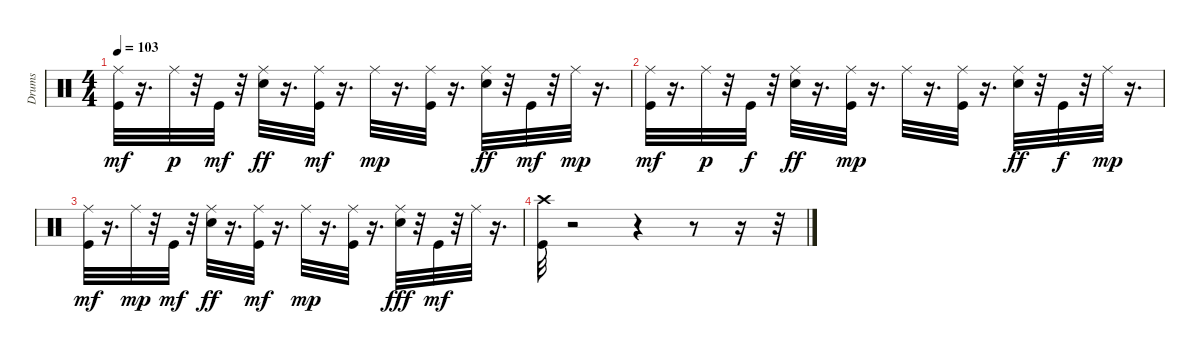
\track ("Drums" "Drums") {instrument percussion}
\staff {score}
\articulation defaults
\ts (4 4)
\tempo 103
\clef neutral
\ks c
("Kick (hit)" "Ride (middle)").32{dy mf} r.16{d} "Ride (middle)".32{dy p} r.32 "Kick (hit)".32{dy mf} r.32 ("Ride (middle)" "Snare (hit) 2").32{dy ff} r.16{d} ("Ride (middle)" "Kick (hit)").32{dy mf} r.16{d} "Ride (middle)".32{dy mp} r.16{d} ("Kick (hit)" "Ride (middle)").32 r.16{d} ("Ride (middle)" "Snare (hit) 2").32{dy ff} r.32 "Kick (hit)".32{dy mf} r.32 "Ride (middle)".32{dy mp} r.16{d} |
("Kick (hit)" "Ride (middle)").32{dy mf} r.16{d} "Ride (middle)".32{dy p} r.32 "Kick (hit)".32{dy f} r.32 ("Ride (middle)" "Snare (hit) 2").32{dy ff} r.16{d} ("Ride (middle)" "Kick (hit)").32{dy mp} r.16{d} "Ride (middle)".32 r.16{d} ("Ride (middle)" "Kick (hit)").32 r.16{d} ("Ride (middle)" "Snare (hit) 2").32{dy ff} r.32 "Kick (hit)".32{dy f} r.32 "Ride (middle)".32{dy mp} r.16{d} |
("Ride (middle)" "Kick (hit)").32{dy mf} r.16{d} "Ride (middle)".32{dy mp} r.32 "Kick (hit)".32{dy mf} r.32 ("Ride (middle)" "Snare (hit) 2").32{dy ff} r.16{d} ("Ride (middle)" "Kick (hit)").32{dy mf} r.16{d} "Ride (middle)".32{dy mp} r.16{d} ("Kick (hit)" "Ride (middle)").32 r.16{d} ("Ride (middle)" "Snare (hit) 2").32{dy fff} r.32 "Kick (hit)".32{dy mf} r.32 "Ride (middle)".32 r.16{d} |
("Kick (hit)" "Crash high (hit)").32 r.2 r.4 r.8 r.16 r.32
